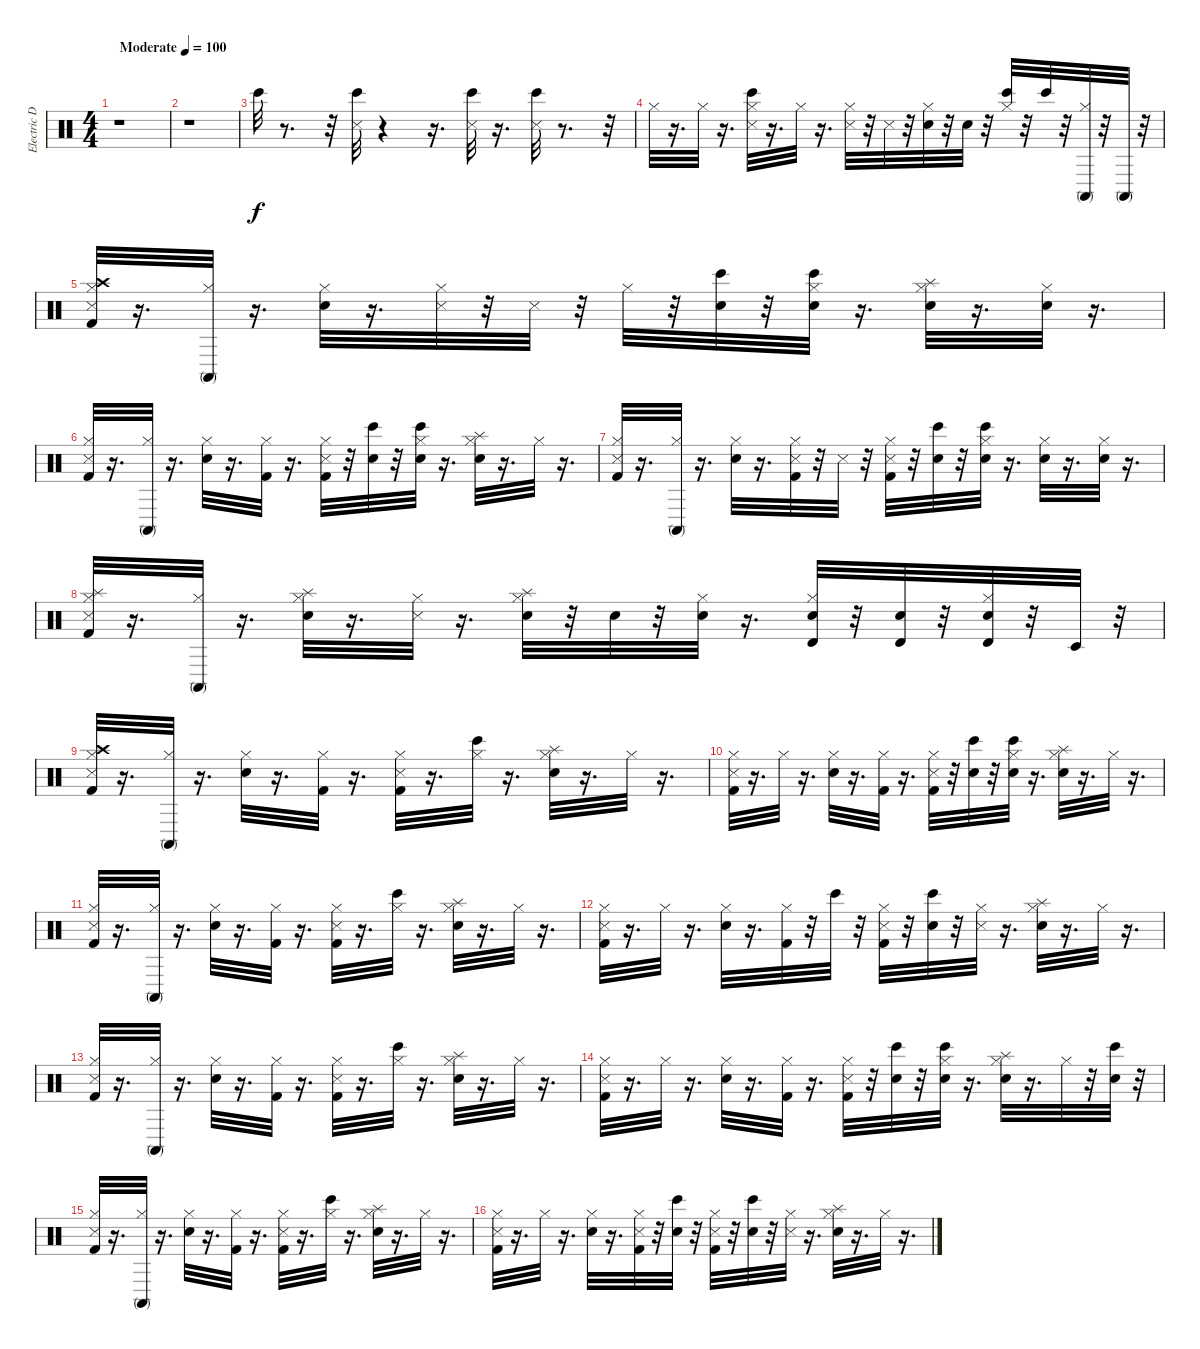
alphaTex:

\track ("Electric Drums" "Electric D") {instrument percussion}
\staff {score}
\articulation defaults
\ts (4 4)
\tempo (100 "Moderate")
\clef neutral
\ks c
r.1{dy f} |
r.1 |
"Bongo High (hit)".32 r.8{d} r.32 ("Snare (side stick) 3" "Bongo High (hit)").32 r.4 r.16{d} ("Bongo High (hit)" "Metronome (hit)").32 r.16{d} ("Snare (side stick) 3" "Bongo High (hit)").32 r.8{d} r.32 |
"Hi-Hat (closed)".32 r.16{d} "Hi-Hat (closed)".32 r.16{d} ("Snare (side stick) 3" "Hi-Hat (closed)" "Bongo High (hit)").32 r.16{d} "Hi-Hat (closed)".32 r.16{d} ("Hi-Hat (closed)" "Metronome (hit)").32 r.32 "Metronome (hit)".32 r.32 ("Snare (hit) 2" "Hi-Hat (closed)").32 r.32 "Electric Snare (hit)".32 r.32 ("Bongo High (hit)" "Hi-Hat (closed)").32 r.32 "Bongo High (hit)".32 r.32 ("Hi-Hat (closed)" "Conga high (mute)").32 r.32 "Conga high (mute)".32 r.32 |
("Crash high (hit)" "Kick (hit) 2" "Hi-Hat (closed)" "Metronome (hit)").32 r.16{d} ("Hi-Hat (closed)" "Conga high (mute)").32 r.16{d} ("Electric Snare (hit)" "Hi-Hat (closed)").32 r.16{d} ("Hi-Hat (closed)" "Metronome (hit)").32 r.32 "Metronome (hit)".32 r.32 "Hi-Hat (closed)".32 r.32 ("Snare (hit)" "Bongo High (hit)").32 r.32 ("Snare (hit)" "Hi-Hat (closed)" "Bongo High (hit)").32 r.16{d} ("Electric Snare (hit)" "Hi-Hat (closed)" "Splash (hit)").32 r.16{d} ("Electric Snare (hit)" "Hi-Hat (closed)").32 r.16{d} |
("Kick (hit) 2" "Hi-Hat (closed)" "Metronome (hit)").32 r.16{d} ("Hi-Hat (closed)" "Conga high (mute)").32 r.16{d} ("Electric Snare (hit)" "Hi-Hat (closed)").32 r.16{d} ("Kick (hit) 2" "Hi-Hat (closed)").32 r.16{d} ("Kick (hit) 2" "Hi-Hat (closed)" "Metronome (hit)").32 r.32 ("Snare (hit)" "Bongo High (hit)").32 r.32 ("Snare (hit)" "Hi-Hat (closed)" "Bongo High (hit)").32 r.16{d} ("Electric Snare (hit)" "Hi-Hat (closed)" "Splash (hit)").32 r.16{d} "Hi-Hat (closed)".32 r.16{d} |
("Kick (hit) 2" "Hi-Hat (closed)" "Metronome (hit)").32 r.16{d} ("Hi-Hat (closed)" "Conga high (mute)").32 r.16{d} ("Electric Snare (hit)" "Hi-Hat (closed)").32 r.16{d} ("Kick (hit) 2" "Hi-Hat (closed)" "Metronome (hit)").32 r.32 "Metronome (hit)".32 r.32 ("Kick (hit) 2" "Hi-Hat (closed)" "Metronome (hit)").32 r.32 ("Snare (hit)" "Bongo High (hit)").32 r.32 ("Snare (hit)" "Hi-Hat (closed)" "Bongo High (hit)").32 r.16{d} ("Electric Snare (hit)" "Hi-Hat (closed)").32 r.16{d} ("Electric Snare (hit)" "Hi-Hat (closed)").32 r.16{d} |
("Kick (hit) 2" "Hi-Hat (closed)" "Splash (hit)" "Metronome (hit)").32 r.16{d} ("Hi-Hat (closed)" "Conga high (mute)").32 r.16{d} ("Electric Snare (hit)" "Hi-Hat (closed)" "Splash (hit)").32 r.16{d} ("Hi-Hat (closed)" "Metronome (hit)").32 r.16{d} ("Snare (hit) 2" "Hi-Hat (closed)" "Splash (hit)").32 r.32 "Snare (hit) 2".32 r.32 ("Snare (hit) 2" "Hi-Hat (closed)").32 r.16{d} ("Electric Snare (hit)" "Hi-Hat (closed)" "Timbale high (hit)").32 r.32 ("Electric Snare (hit)" "Timbale high (hit)").32 r.32 ("Electric Snare (hit)" "Hi-Hat (closed)" "Timbale high (hit)").32 r.32 "Timbale low (hit)".32 r.32 |
("Crash high (hit)" "Kick (hit) 2" "Hi-Hat (closed)" "Metronome (hit)").32 r.16{d} ("Hi-Hat (closed)" "Conga high (mute)").32 r.16{d} ("Electric Snare (hit)" "Hi-Hat (closed)").32 r.16{d} ("Kick (hit) 2" "Hi-Hat (closed)").32 r.16{d} ("Kick (hit) 2" "Hi-Hat (closed)" "Metronome (hit)").32 r.16{d} ("Hi-Hat (closed)" "Bongo High (hit)").32 r.16{d} ("Electric Snare (hit)" "Hi-Hat (closed)" "Splash (hit)").32 r.16{d} "Hi-Hat (closed)".32 r.16{d} |
("Kick (hit) 2" "Hi-Hat (closed)" "Metronome (hit)").32 r.16{d} "Hi-Hat (closed)".32 r.16{d} ("Electric Snare (hit)" "Hi-Hat (closed)").32 r.16{d} ("Kick (hit) 2" "Hi-Hat (closed)").32 r.16{d} ("Kick (hit) 2" "Hi-Hat (closed)" "Metronome (hit)").32 r.32 ("Snare (hit)" "Bongo High (hit)").32 r.32 ("Snare (hit)" "Hi-Hat (closed)" "Bongo High (hit)").32 r.16{d} ("Electric Snare (hit)" "Hi-Hat (closed)" "Splash (hit)").32 r.16{d} "Hi-Hat (closed)".32 r.16{d} |
("Kick (hit) 2" "Hi-Hat (closed)" "Metronome (hit)").32 r.16{d} ("Hi-Hat (closed)" "Conga high (mute)").32 r.16{d} ("Electric Snare (hit)" "Hi-Hat (closed)").32 r.16{d} ("Kick (hit) 2" "Hi-Hat (closed)").32 r.16{d} ("Kick (hit) 2" "Hi-Hat (closed)" "Metronome (hit)").32 r.16{d} ("Hi-Hat (closed)" "Bongo High (hit)").32 r.16{d} ("Electric Snare (hit)" "Hi-Hat (closed)" "Splash (hit)").32 r.16{d} "Hi-Hat (closed)".32 r.16{d} |
("Kick (hit) 2" "Hi-Hat (closed)" "Metronome (hit)").32 r.16{d} "Hi-Hat (closed)".32 r.16{d} ("Electric Snare (hit)" "Hi-Hat (closed)").32 r.16{d} ("Kick (hit) 2" "Hi-Hat (closed)").32 r.32 "Bongo High (hit)".32 r.32 ("Kick (hit) 2" "Hi-Hat (closed)" "Metronome (hit)").32 r.32 ("Snare (hit)" "Bongo High (hit)").32 r.32 ("Hi-Hat (closed)" "Metronome (hit)").32 r.16{d} ("Electric Snare (hit)" "Hi-Hat (closed)" "Splash (hit)").32 r.16{d} "Hi-Hat (closed)".32 r.16{d} |
("Kick (hit) 2" "Hi-Hat (closed)" "Metronome (hit)").32 r.16{d} ("Hi-Hat (closed)" "Conga high (mute)").32 r.16{d} ("Electric Snare (hit)" "Hi-Hat (closed)").32 r.16{d} ("Kick (hit) 2" "Hi-Hat (closed)").32 r.16{d} ("Kick (hit) 2" "Hi-Hat (closed)" "Metronome (hit)").32 r.16{d} ("Hi-Hat (closed)" "Bongo High (hit)").32 r.16{d} ("Electric Snare (hit)" "Hi-Hat (closed)" "Splash (hit)").32 r.16{d} "Hi-Hat (closed)".32 r.16{d} |
("Kick (hit) 2" "Hi-Hat (closed)" "Metronome (hit)").32 r.16{d} "Hi-Hat (closed)".32 r.16{d} ("Electric Snare (hit)" "Hi-Hat (closed)").32 r.16{d} ("Kick (hit) 2" "Hi-Hat (closed)").32 r.16{d} ("Kick (hit) 2" "Hi-Hat (closed)" "Metronome (hit)").32 r.32 ("Snare (hit)" "Bongo High (hit)").32 r.32 ("Snare (hit)" "Hi-Hat (closed)" "Bongo High (hit)").32 r.16{d} ("Electric Snare (hit)" "Hi-Hat (closed)" "Splash (hit)").32 r.16{d} "Hi-Hat (closed)".32 r.32 ("Snare (hit)" "Bongo High (hit)").32 r.32 |
("Kick (hit) 2" "Hi-Hat (closed)" "Metronome (hit)").32 r.16{d} ("Hi-Hat (closed)" "Conga high (mute)").32 r.16{d} ("Electric Snare (hit)" "Hi-Hat (closed)").32 r.16{d} ("Kick (hit) 2" "Hi-Hat (closed)").32 r.16{d} ("Kick (hit) 2" "Hi-Hat (closed)" "Metronome (hit)").32 r.16{d} ("Hi-Hat (closed)" "Bongo High (hit)").32 r.16{d} ("Electric Snare (hit)" "Hi-Hat (closed)" "Splash (hit)").32 r.16{d} "Hi-Hat (closed)".32 r.16{d} |
("Kick (hit) 2" "Hi-Hat (closed)" "Metronome (hit)").32 r.16{d} "Hi-Hat (closed)".32 r.16{d} ("Electric Snare (hit)" "Hi-Hat (closed)").32 r.16{d} ("Kick (hit) 2" "Hi-Hat (closed)" "Metronome (hit)").32 r.32 ("Snare (hit)" "Bongo High (hit)").32 r.32 ("Kick (hit) 2" "Hi-Hat (closed)" "Metronome (hit)").32 r.32 ("Snare (hit)" "Bongo High (hit)").32 r.32 ("Hi-Hat (closed)" "Metronome (hit)").32 r.16{d} ("Electric Snare (hit)" "Hi-Hat (closed)" "Splash (hit)").32 r.16{d} "Hi-Hat (closed)".32 r.16{d}
